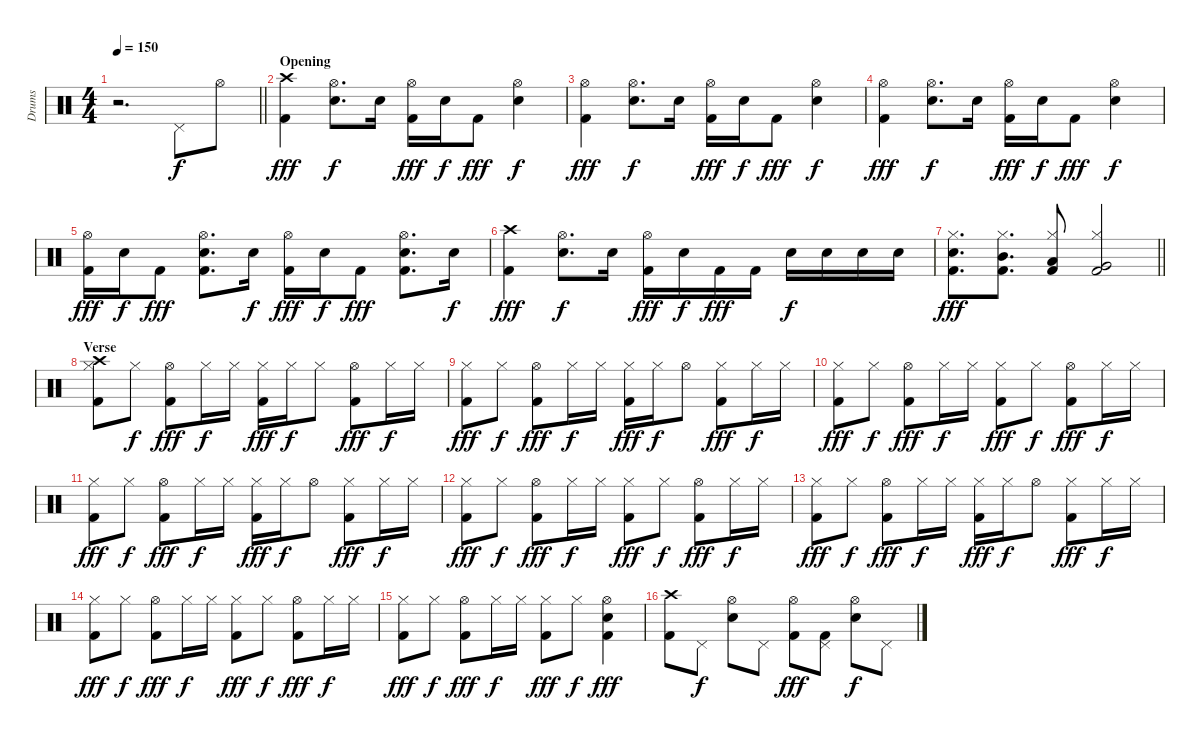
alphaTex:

\track ("Drums" "Drums") {instrument percussion}
\staff {score}
\articulation defaults
\ts (4 4)
\tempo 150
\clef neutral
\barLineRight lightlight
\ks c
r.2{d dy f} "Pedal Hi-Hat (hit)".8 "Hi-Hat (open)".8 |
\section ("" "Opening")
("Crash high (hit)" "Kick (hit) 2").4{dy fff} ("Hi-Hat (open)" "Snare (hit) 2").8{d dy f} "Snare (hit) 2".16 ("Hi-Hat (open)" "Kick (hit) 2").16{dy fff} "Snare (hit) 2".16{dy f} "Kick (hit) 2".8{dy fff} ("Hi-Hat (open)" "Snare (hit) 2").4{dy f} |
("Hi-Hat (open)" "Kick (hit) 2").4{dy fff} ("Hi-Hat (open)" "Snare (hit) 2").8{d dy f} "Snare (hit) 2".16 ("Hi-Hat (open)" "Kick (hit) 2").16{dy fff} "Snare (hit) 2".16{dy f} "Kick (hit) 2".8{dy fff} ("Hi-Hat (open)" "Snare (hit) 2").4{dy f} |
("Hi-Hat (open)" "Kick (hit) 2").4{dy fff} ("Hi-Hat (open)" "Snare (hit) 2").8{d dy f} "Snare (hit) 2".16 ("Hi-Hat (open)" "Kick (hit) 2").16{dy fff} "Snare (hit) 2".16{dy f} "Kick (hit) 2".8{dy fff} ("Hi-Hat (open)" "Snare (hit) 2").4{dy f} |
("Hi-Hat (open)" "Kick (hit) 2").16{dy fff} "Snare (hit) 2".16{dy f} "Kick (hit) 2".8{dy fff} ("Hi-Hat (open)" "Snare (hit) 2" "Kick (hit) 2").8{d} "Snare (hit) 2".16{dy f} ("Hi-Hat (open)" "Kick (hit) 2").16{dy fff} "Snare (hit) 2".16{dy f} "Kick (hit) 2".8{dy fff} ("Hi-Hat (open)" "Snare (hit) 2" "Kick (hit) 2").8{d} "Snare (hit) 2".16{dy f} |
("Crash high (hit)" "Kick (hit) 2").4{dy fff} ("Hi-Hat (open)" "Snare (hit) 2").8{d dy f} "Snare (hit) 2".16 ("Hi-Hat (open)" "Kick (hit) 2").16{dy fff} "Snare (hit) 2".16{dy f} "Kick (hit) 2".16{dy fff} "Kick (hit) 2".16 "Snare (hit) 2".16{dy f} "Snare (hit) 2".16 "Snare (hit) 2".16 "Snare (hit) 2".16 |
\barLineRight lightlight
("Hi-Hat (closed)" "Snare (hit) 2" "Kick (hit) 2").8{d dy fff} ("Hi-Hat (closed)" "Mid Tom (hit)" "Kick (hit) 2").8{d} ("Hi-Hat (closed)" "Low Tom (hit)" "Kick (hit) 2").8 ("Hi-Hat (closed)" "Very Low Tom (hit)" "Kick (hit) 2").2 |
\section ("" "Verse")
("Hi-Hat (closed)" "Crash high (hit)" "Kick (hit) 2").8 "Hi-Hat (closed)".8{dy f} ("Hi-Hat (open)" "Kick (hit) 2").8{dy fff} "Hi-Hat (closed)".16{dy f} "Hi-Hat (closed)".16 ("Hi-Hat (closed)" "Kick (hit) 2").16{dy fff} "Hi-Hat (closed)".16{dy f} "Hi-Hat (closed)".8 ("Hi-Hat (open)" "Kick (hit) 2").8{dy fff} "Hi-Hat (closed)".16{dy f} "Hi-Hat (closed)".16 |
("Hi-Hat (closed)" "Kick (hit) 2").8{dy fff} "Hi-Hat (closed)".8{dy f} ("Hi-Hat (open)" "Kick (hit) 2").8{dy fff} "Hi-Hat (closed)".16{dy f} "Hi-Hat (closed)".16 ("Hi-Hat (closed)" "Kick (hit) 2").16{dy fff} "Hi-Hat (closed)".16{dy f} "Hi-Hat (open)".8 ("Hi-Hat (closed)" "Kick (hit) 2").8{dy fff} "Hi-Hat (closed)".16{dy f} "Hi-Hat (closed)".16 |
("Hi-Hat (closed)" "Kick (hit) 2").8{dy fff} "Hi-Hat (closed)".8{dy f} ("Hi-Hat (open)" "Kick (hit) 2").8{dy fff} "Hi-Hat (closed)".16{dy f} "Hi-Hat (closed)".16 ("Hi-Hat (closed)" "Kick (hit) 2").8{dy fff} "Hi-Hat (closed)".8{dy f} ("Hi-Hat (open)" "Kick (hit) 2").8{dy fff} "Hi-Hat (closed)".16{dy f} "Hi-Hat (closed)".16 |
("Hi-Hat (closed)" "Kick (hit) 2").8{dy fff} "Hi-Hat (closed)".8{dy f} ("Hi-Hat (open)" "Kick (hit) 2").8{dy fff} "Hi-Hat (closed)".16{dy f} "Hi-Hat (closed)".16 ("Hi-Hat (closed)" "Kick (hit) 2").16{dy fff} "Hi-Hat (closed)".16{dy f} "Hi-Hat (open)".8 ("Hi-Hat (closed)" "Kick (hit) 2").8{dy fff} "Hi-Hat (closed)".16{dy f} "Hi-Hat (closed)".16 |
("Hi-Hat (closed)" "Kick (hit) 2").8{dy fff} "Hi-Hat (closed)".8{dy f} ("Hi-Hat (open)" "Kick (hit) 2").8{dy fff} "Hi-Hat (closed)".16{dy f} "Hi-Hat (closed)".16 ("Hi-Hat (closed)" "Kick (hit) 2").8{dy fff} "Hi-Hat (closed)".8{dy f} ("Hi-Hat (open)" "Kick (hit) 2").8{dy fff} "Hi-Hat (closed)".16{dy f} "Hi-Hat (closed)".16 |
("Hi-Hat (closed)" "Kick (hit) 2").8{dy fff} "Hi-Hat (closed)".8{dy f} ("Hi-Hat (open)" "Kick (hit) 2").8{dy fff} "Hi-Hat (closed)".16{dy f} "Hi-Hat (closed)".16 ("Hi-Hat (closed)" "Kick (hit) 2").16{dy fff} "Hi-Hat (closed)".16{dy f} "Hi-Hat (open)".8 ("Hi-Hat (closed)" "Kick (hit) 2").8{dy fff} "Hi-Hat (closed)".16{dy f} "Hi-Hat (closed)".16 |
("Hi-Hat (closed)" "Kick (hit) 2").8{dy fff} "Hi-Hat (closed)".8{dy f} ("Hi-Hat (open)" "Kick (hit) 2").8{dy fff} "Hi-Hat (closed)".16{dy f} "Hi-Hat (closed)".16 ("Hi-Hat (closed)" "Kick (hit) 2").8{dy fff} "Hi-Hat (closed)".8{dy f} ("Hi-Hat (open)" "Kick (hit) 2").8{dy fff} "Hi-Hat (closed)".16{dy f} "Hi-Hat (closed)".16 |
("Hi-Hat (closed)" "Kick (hit) 2").8{dy fff} "Hi-Hat (closed)".8{dy f} ("Hi-Hat (open)" "Kick (hit) 2").8{dy fff} "Hi-Hat (closed)".16{dy f} "Hi-Hat (closed)".16 ("Hi-Hat (closed)" "Kick (hit) 2").8{dy fff} "Hi-Hat (closed)".8{dy f} ("Hi-Hat (open)" "Snare (hit) 2" "Kick (hit) 2").4{dy fff} |
("Crash high (hit)" "Kick (hit) 2").8 "Pedal Hi-Hat (hit)".8{dy f} ("Hi-Hat (open)" "Snare (hit) 2").8 "Pedal Hi-Hat (hit)".8 ("Hi-Hat (open)" "Kick (hit) 2").8{dy fff} ("Pedal Hi-Hat (hit)" "Kick (hit) 2").8 ("Hi-Hat (open)" "Snare (hit) 2").8{dy f} "Pedal Hi-Hat (hit)".8
